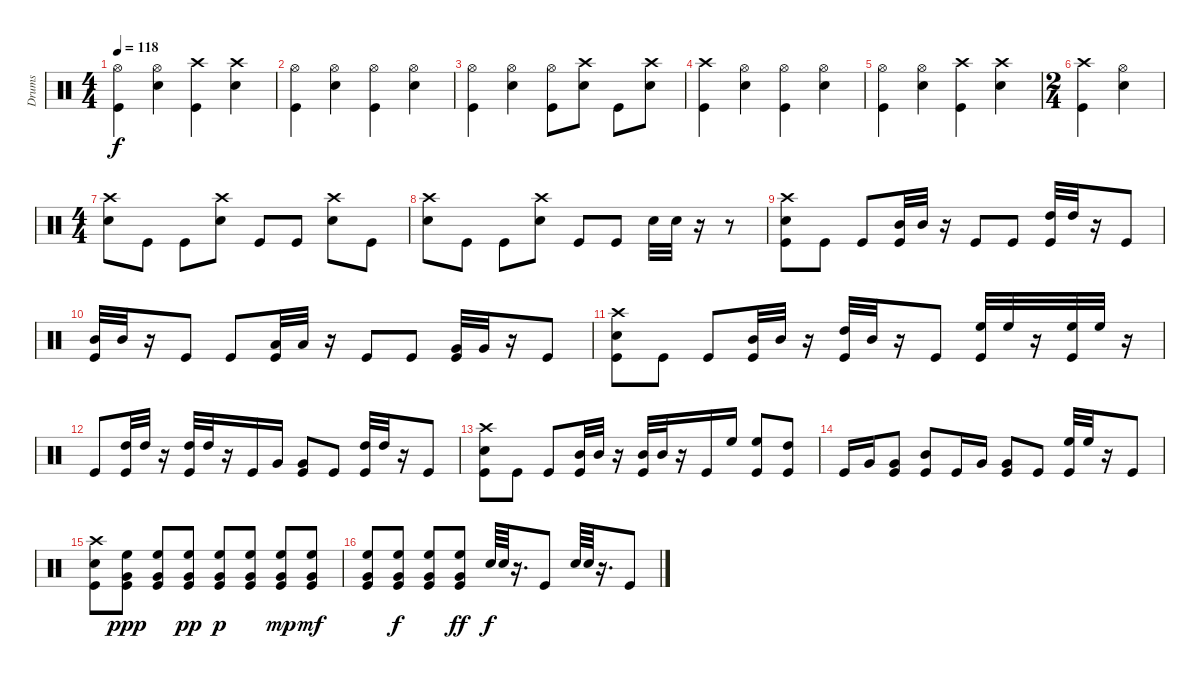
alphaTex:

\track ("Drums" "Drums") {instrument percussion}
\staff {score}
\articulation defaults
\ts (4 4)
\tempo 118
\clef neutral
\ks c
("Hi-Hat (open)" "Kick (hit)").4{dy f} ("Hi-Hat (open)" "Snare (hit) 2").4 ("Kick (hit)" "Crash high (hit)").4 ("Snare (hit) 2" "Crash high (hit)").4 |
("Hi-Hat (open)" "Kick (hit)").4 ("Hi-Hat (open)" "Snare (hit) 2").4 ("Hi-Hat (open)" "Kick (hit)").4 ("Hi-Hat (open)" "Snare (hit) 2").4 |
("Hi-Hat (open)" "Kick (hit)").4 ("Hi-Hat (open)" "Snare (hit) 2").4 ("Hi-Hat (open)" "Kick (hit)").8 ("Snare (hit) 2" "Crash high (hit)").8 "Kick (hit)".8 ("Snare (hit) 2" "Crash high (hit)").8 |
("Crash high (hit)" "Kick (hit)").4 ("Hi-Hat (open)" "Snare (hit) 2").4 ("Hi-Hat (open)" "Kick (hit)").4 ("Hi-Hat (open)" "Snare (hit) 2").4 |
("Hi-Hat (open)" "Kick (hit)").4 ("Hi-Hat (open)" "Snare (hit) 2").4 ("Kick (hit)" "Crash high (hit)").4 ("Snare (hit) 2" "Crash high (hit)").4 |
\ts (2 4)
("Crash high (hit)" "Kick (hit)").4 ("Hi-Hat (open)" "Snare (hit) 2").4 |
\ts (4 4)
("Crash high (hit)" "Snare (hit) 2").8 "Kick (hit)".8 "Kick (hit)".8 ("Crash high (hit)" "Snare (hit) 2").8 "Kick (hit)".8 "Kick (hit)".8 ("Crash high (hit)" "Snare (hit) 2").8 "Kick (hit)".8 |
("Crash high (hit)" "Snare (hit) 2").8 "Kick (hit)".8 "Kick (hit)".8 ("Crash high (hit)" "Snare (hit) 2").8 "Kick (hit)".8 "Kick (hit)".8 "Snare (hit) 2".32 "Snare (hit) 2".32 r.16 r.8 |
("Crash high (hit)" "Snare (hit) 2" "Kick (hit)").8 "Kick (hit)".8 "Kick (hit)".8 ("Kick (hit)" "Mid Tom (hit)").32 "Mid Tom (hit)".32 r.16 "Kick (hit)".8 "Kick (hit)".8 ("Kick (hit)" "High Tom (hit)").32 "High Tom (hit)".32 r.16 "Kick (hit)".8 |
("Kick (hit)" "Mid Tom (hit)").32 "Mid Tom (hit)".32 r.16 "Kick (hit)".8 "Kick (hit)".8 ("Kick (hit)" "Low Tom (hit)").32 "Low Tom (hit)".32 r.16 "Kick (hit)".8 "Kick (hit)".8 ("Kick (hit)" "Very Low Tom (hit)").32 "Very Low Tom (hit)".32 r.16 "Kick (hit)".8 |
("Crash high (hit)" "Snare (hit) 2" "Kick (hit)").8 "Kick (hit)".8 "Kick (hit)".8 ("Kick (hit)" "Mid Tom (hit)").32 "Mid Tom (hit)".32 r.16 ("Kick (hit)" "High Tom (hit)").32 "Mid Tom (hit)".32 r.16 "Kick (hit)".8 ("Kick (hit)" "High Floor Tom (hit)").32 "High Floor Tom (hit)".32 r.16 ("Kick (hit)" "High Floor Tom (hit)").32 "High Floor Tom (hit)".32 r.16 |
"Kick (hit)".8 ("Kick (hit)" "High Tom (hit)").32 "High Tom (hit)".32 r.16 ("Kick (hit)" "High Tom (hit)").32 "High Tom (hit)".32 r.16 "Kick (hit)".16 "Very Low Tom (hit)".16 ("Kick (hit)" "Very Low Tom (hit)").8 "Kick (hit)".8 ("Kick (hit)" "High Tom (hit)").32 "High Tom (hit)".32 r.16 "Kick (hit)".8 |
("Crash high (hit)" "Snare (hit) 2" "Kick (hit)").8 "Kick (hit)".8 "Kick (hit)".8 ("Kick (hit)" "Mid Tom (hit)").32 "Mid Tom (hit)".32 r.16 ("Kick (hit)" "Mid Tom (hit)").32 "Mid Tom (hit)".32 r.16 "Kick (hit)".16 "High Floor Tom (hit)".16 ("Kick (hit)" "High Floor Tom (hit)").8 ("Kick (hit)" "High Tom (hit)").8 |
"Kick (hit)".16 "Very Low Tom (hit)".16 ("Kick (hit)" "Very Low Tom (hit)").8 ("Kick (hit)" "Mid Tom (hit)").8 "Kick (hit)".16 "Very Low Tom (hit)".16 ("Kick (hit)" "Very Low Tom (hit)").8 "Kick (hit)".8 ("Kick (hit)" "High Floor Tom (hit)").32 "High Floor Tom (hit)".32 r.16 "Kick (hit)".8 |
("Crash high (hit)" "Snare (hit) 2" "Kick (hit)").8 ("Very Low Tom (hit)" "Kick (hit)" "High Floor Tom (hit)").8{dy ppp} ("Very Low Tom (hit)" "Kick (hit)" "High Floor Tom (hit)").8 ("Very Low Tom (hit)" "Kick (hit)" "High Floor Tom (hit)").8{dy pp} ("Very Low Tom (hit)" "Kick (hit)" "High Floor Tom (hit)").8{dy p} ("Very Low Tom (hit)" "Kick (hit)" "High Floor Tom (hit)").8 ("Very Low Tom (hit)" "Kick (hit)" "High Floor Tom (hit)").8{dy mp} ("Very Low Tom (hit)" "Kick (hit)" "High Floor Tom (hit)").8{dy mf} |
("Very Low Tom (hit)" "Kick (hit)" "High Floor Tom (hit)").8 ("Very Low Tom (hit)" "Kick (hit)" "High Floor Tom (hit)").8{dy f} ("Very Low Tom (hit)" "Kick (hit)" "High Floor Tom (hit)").8 ("Very Low Tom (hit)" "Kick (hit)" "High Floor Tom (hit)").8{dy ff} "Snare (hit) 2".64{dy f} "Snare (hit) 2".64 r.16{d} "Kick (hit)".8 "Snare (hit) 2".64 "Snare (hit) 2".64 r.16{d} "Kick (hit)".8
